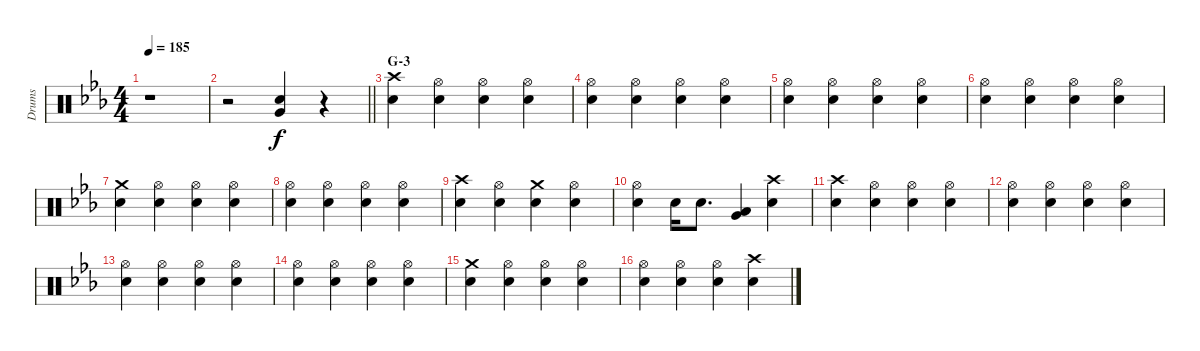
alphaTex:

\track ("Drums" "Drums") {instrument percussion}
\staff {score}
\articulation defaults
\ts (4 4)
\tempo 185
\clef neutral
\ks eb
r.1{dy f} |
\barLineRight lightlight
r.2 ("Snare (hit) 2" "Very Low Tom (hit)").4 r.4 |
\section ("" "G-3")
("Crash high (hit)" "Snare (hit) 2").4 ("Hi-Hat (open)" "Snare (hit) 2").4 ("Hi-Hat (open)" "Snare (hit) 2").4 ("Hi-Hat (open)" "Snare (hit) 2").4 |
("Hi-Hat (open)" "Snare (hit) 2").4 ("Hi-Hat (open)" "Snare (hit) 2").4 ("Hi-Hat (open)" "Snare (hit) 2").4 ("Hi-Hat (open)" "Snare (hit) 2").4 |
("Hi-Hat (open)" "Snare (hit) 2").4 ("Hi-Hat (open)" "Snare (hit) 2").4 ("Hi-Hat (open)" "Snare (hit) 2").4 ("Hi-Hat (open)" "Snare (hit) 2").4 |
("Hi-Hat (open)" "Snare (hit) 2").4 ("Hi-Hat (open)" "Snare (hit) 2").4 ("Hi-Hat (open)" "Snare (hit) 2").4 ("Hi-Hat (open)" "Snare (hit) 2").4 |
("Crash medium (hit)" "Snare (hit) 2").4 ("Hi-Hat (open)" "Snare (hit) 2").4 ("Hi-Hat (open)" "Snare (hit) 2").4 ("Hi-Hat (open)" "Snare (hit) 2").4 |
("Hi-Hat (open)" "Snare (hit) 2").4 ("Hi-Hat (open)" "Snare (hit) 2").4 ("Hi-Hat (open)" "Snare (hit) 2").4 ("Hi-Hat (open)" "Snare (hit) 2").4 |
("Crash high (hit)" "Snare (hit) 2").4 ("Hi-Hat (open)" "Snare (hit) 2").4 ("Crash medium (hit)" "Snare (hit) 2").4 ("Hi-Hat (open)" "Snare (hit) 2").4 |
("Hi-Hat (open)" "Snare (hit) 2").4 "Snare (hit) 2".16 "Snare (hit) 2".8{d} ("Low Tom (hit)" "Very Low Tom (hit)").4 ("Crash high (hit)" "Snare (hit) 2").4 |
("Crash high (hit)" "Snare (hit) 2").4 ("Hi-Hat (open)" "Snare (hit) 2").4 ("Hi-Hat (open)" "Snare (hit) 2").4 ("Hi-Hat (open)" "Snare (hit) 2").4 |
("Hi-Hat (open)" "Snare (hit) 2").4 ("Hi-Hat (open)" "Snare (hit) 2").4 ("Hi-Hat (open)" "Snare (hit) 2").4 ("Hi-Hat (open)" "Snare (hit) 2").4 |
("Hi-Hat (open)" "Snare (hit) 2").4 ("Hi-Hat (open)" "Snare (hit) 2").4 ("Hi-Hat (open)" "Snare (hit) 2").4 ("Hi-Hat (open)" "Snare (hit) 2").4 |
("Hi-Hat (open)" "Snare (hit) 2").4 ("Hi-Hat (open)" "Snare (hit) 2").4 ("Hi-Hat (open)" "Snare (hit) 2").4 ("Hi-Hat (open)" "Snare (hit) 2").4 |
("Crash medium (hit)" "Snare (hit) 2").4 ("Hi-Hat (open)" "Snare (hit) 2").4 ("Hi-Hat (open)" "Snare (hit) 2").4 ("Hi-Hat (open)" "Snare (hit) 2").4 |
("Hi-Hat (open)" "Snare (hit) 2").4 ("Hi-Hat (open)" "Snare (hit) 2").4 ("Hi-Hat (open)" "Snare (hit) 2").4 ("Crash high (hit)" "Snare (hit) 2").4
